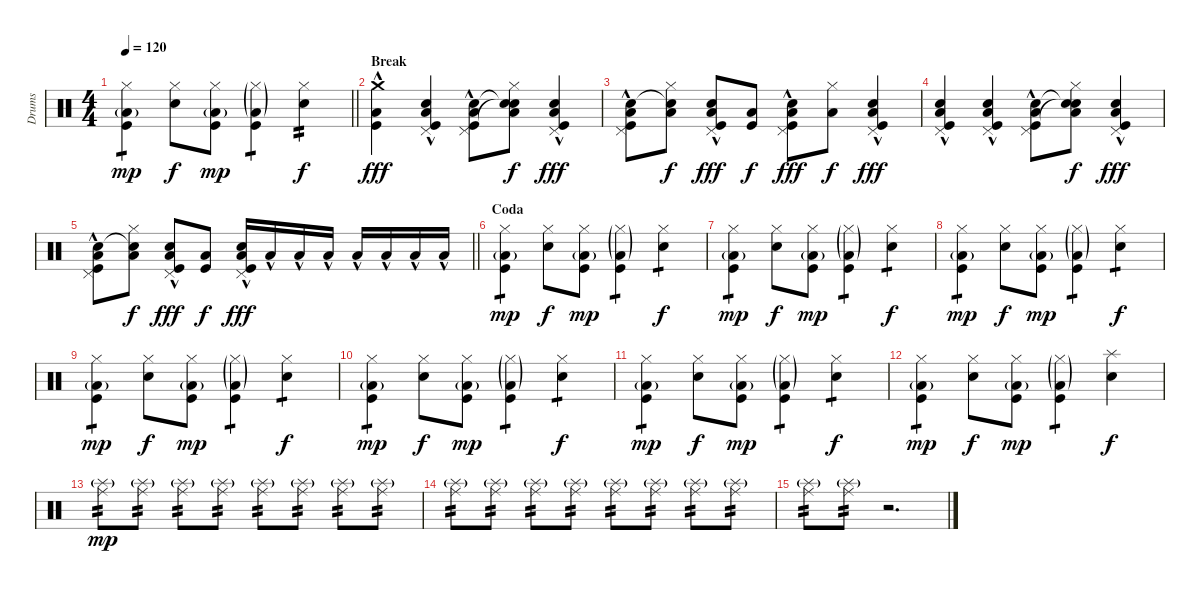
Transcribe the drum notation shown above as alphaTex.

\track ("Drums" "Drums") {instrument percussion}
\staff {score}
\articulation defaults
\ts (4 4)
\tempo 120
\clef neutral
\barLineRight lightlight
\ks c
("Hi-Hat (closed)" "Low Tom (hit)"{g} "Kick (hit)").4{tp 1 dy mp} ("Hi-Hat (closed)" "Snare (hit) 2").8{dy f} ("Hi-Hat (closed)" "Low Tom (hit)"{g} "Kick (hit)").8{dy mp} ("Hi-Hat (closed)"{g} "Low Tom (hit)"{g} "Kick (hit)").4{tp 1} ("Hi-Hat (closed)" "Snare (hit) 2").4{tp 2 dy f} |
\section ("" "Break")
("Crash medium (hit)" "Low Tom (hit)"{hac} "Kick (hit)").4{dy fff} ("Pedal Hi-Hat (hit)" "Snare (hit) 2"{hac} "Low Tom (hit)"{hac} "Kick (hit)").4 ("Pedal Hi-Hat (hit)" "Snare (hit) 2"{hac} "Low Tom (hit)"{hac} "Kick (hit)").8 ("Hi-Hat (closed)" "Snare (hit)"{t} "Low Tom (hit)" "Snare (hit)"{t}).8{dy f} ("Pedal Hi-Hat (hit)" "Snare (hit) 2"{hac} "Low Tom (hit)"{hac} "Kick (hit)").4{dy fff} |
("Pedal Hi-Hat (hit)" "Snare (hit) 2"{hac} "Low Tom (hit)"{hac} "Kick (hit)").8 ("Hi-Hat (closed)" "Snare (hit)"{t} "Low Tom (hit)").8{dy f} ("Pedal Hi-Hat (hit)" "Snare (hit) 2"{hac} "Low Tom (hit)"{hac} "Kick (hit)").8{dy fff} ("Low Tom (hit)" "Kick (hit)").8{dy f} ("Pedal Hi-Hat (hit)" "Snare (hit) 2"{hac} "Low Tom (hit)"{hac} "Kick (hit)").8{dy fff} ("Hi-Hat (closed)" "Low Tom (hit)").8{dy f} ("Pedal Hi-Hat (hit)" "Snare (hit) 2"{hac} "Low Tom (hit)"{hac} "Kick (hit)").4{dy fff} |
("Pedal Hi-Hat (hit)" "Snare (hit) 2"{hac} "Low Tom (hit)"{hac} "Kick (hit)").4 ("Pedal Hi-Hat (hit)" "Snare (hit) 2"{hac} "Low Tom (hit)"{hac} "Kick (hit)").4 ("Pedal Hi-Hat (hit)" "Snare (hit) 2"{hac} "Low Tom (hit)"{hac} "Kick (hit)").8 ("Hi-Hat (closed)" "Snare (hit)"{t} "Low Tom (hit)" "Snare (hit)"{t}).8{dy f} ("Pedal Hi-Hat (hit)" "Snare (hit) 2"{hac} "Low Tom (hit)"{hac} "Kick (hit)").4{dy fff} |
\barLineRight lightlight
("Pedal Hi-Hat (hit)" "Snare (hit) 2"{hac} "Low Tom (hit)"{hac} "Kick (hit)").8 ("Hi-Hat (closed)" "Snare (hit)"{t} "Low Tom (hit)").8{dy f} ("Pedal Hi-Hat (hit)" "Snare (hit) 2"{hac} "Low Tom (hit)"{hac} "Kick (hit)").8{dy fff} ("Low Tom (hit)" "Kick (hit)").8{dy f} ("Pedal Hi-Hat (hit)" "Snare (hit) 2"{hac} "Low Tom (hit)"{hac} "Kick (hit)").16{dy fff} "Low Tom (hit)"{hac}.16 "Low Tom (hit)"{hac}.16 "Low Tom (hit)"{hac}.16 "Low Tom (hit)"{hac}.16 "Low Tom (hit)"{hac}.16 "Low Tom (hit)"{hac}.16 "Low Tom (hit)"{hac}.16 |
\section ("" "Coda")
("Hi-Hat (closed)" "Low Tom (hit)"{g} "Kick (hit)").4{tp 1 dy mp} ("Hi-Hat (closed)" "Snare (hit) 2").8{dy f} ("Hi-Hat (closed)" "Low Tom (hit)"{g} "Kick (hit)").8{dy mp} ("Hi-Hat (closed)"{g} "Low Tom (hit)"{g} "Kick (hit)").4{tp 1} ("Hi-Hat (closed)" "Snare (hit) 2").4{tp 1 dy f} |
("Hi-Hat (closed)" "Low Tom (hit)"{g} "Kick (hit)").4{tp 1 dy mp} ("Hi-Hat (closed)" "Snare (hit) 2").8{dy f} ("Hi-Hat (closed)" "Low Tom (hit)"{g} "Kick (hit)").8{dy mp} ("Hi-Hat (closed)"{g} "Low Tom (hit)"{g} "Kick (hit)").4{tp 1} ("Hi-Hat (closed)" "Snare (hit) 2").4{tp 1 dy f} |
("Hi-Hat (closed)" "Low Tom (hit)"{g} "Kick (hit)").4{tp 1 dy mp} ("Hi-Hat (closed)" "Snare (hit) 2").8{dy f} ("Hi-Hat (closed)" "Low Tom (hit)"{g} "Kick (hit)").8{dy mp} ("Hi-Hat (closed)"{g} "Low Tom (hit)"{g} "Kick (hit)").4{tp 1} ("Hi-Hat (closed)" "Snare (hit) 2").4{tp 1 dy f} |
("Hi-Hat (closed)" "Low Tom (hit)"{g} "Kick (hit)").4{tp 1 dy mp} ("Hi-Hat (closed)" "Snare (hit) 2").8{dy f} ("Hi-Hat (closed)" "Low Tom (hit)"{g} "Kick (hit)").8{dy mp} ("Hi-Hat (closed)"{g} "Low Tom (hit)"{g} "Kick (hit)").4{tp 1} ("Hi-Hat (closed)" "Snare (hit) 2").4{tp 1 dy f} |
("Hi-Hat (closed)" "Low Tom (hit)"{g} "Kick (hit)").4{tp 1 dy mp} ("Hi-Hat (closed)" "Snare (hit) 2").8{dy f} ("Hi-Hat (closed)" "Low Tom (hit)"{g} "Kick (hit)").8{dy mp} ("Hi-Hat (closed)"{g} "Low Tom (hit)"{g} "Kick (hit)").4{tp 1} ("Hi-Hat (closed)" "Snare (hit) 2").4{tp 1 dy f} |
("Hi-Hat (closed)" "Low Tom (hit)"{g} "Kick (hit)").4{tp 1 dy mp} ("Hi-Hat (closed)" "Snare (hit) 2").8{dy f} ("Hi-Hat (closed)" "Low Tom (hit)"{g} "Kick (hit)").8{dy mp} ("Hi-Hat (closed)"{g} "Low Tom (hit)"{g} "Kick (hit)").4{tp 1} ("Hi-Hat (closed)" "Snare (hit) 2").4{tp 1 dy f} |
("Hi-Hat (closed)" "Low Tom (hit)"{g} "Kick (hit)").4{tp 1 dy mp} ("Hi-Hat (closed)" "Snare (hit) 2").8{dy f} ("Hi-Hat (closed)" "Low Tom (hit)"{g} "Kick (hit)").8{dy mp} ("Hi-Hat (closed)"{g} "Low Tom (hit)"{g} "Kick (hit)").4{tp 1} ("Splash (hit)" "Snare (hit) 2").4{dy f} |
("Ride (middle)" "Splash (hit)"{g}).8{tp 2 dy mp volume 0 balance 0} ("Ride (middle)" "Splash (hit)"{g}).8{tp 2} ("Ride (middle)" "Splash (hit)"{g}).8{tp 2} ("Ride (middle)" "Splash (hit)"{g}).8{tp 2} ("Ride (middle)" "Splash (hit)"{g}).8{tp 2 volume 5 balance 8} ("Ride (middle)" "Splash (hit)"{g}).8{tp 2} ("Ride (middle)" "Splash (hit)"{g}).8{tp 2} ("Ride (middle)" "Splash (hit)"{g}).8{tp 2} |
("Ride (middle)" "Splash (hit)"{g}).8{tp 2} ("Ride (middle)" "Splash (hit)"{g}).8{tp 2} ("Ride (middle)" "Splash (hit)"{g}).8{tp 2} ("Ride (middle)" "Splash (hit)"{g}).8{tp 2} ("Ride (middle)" "Splash (hit)"{g}).8{tp 2} ("Ride (middle)" "Splash (hit)"{g}).8{tp 2} ("Ride (middle)" "Splash (hit)"{g}).8{tp 2} ("Ride (middle)" "Splash (hit)"{g}).8{tp 2} |
("Ride (middle)" "Splash (hit)"{g}).8{tp 2} ("Ride (middle)" "Splash (hit)"{g}).8{tp 2} r.2{d}
